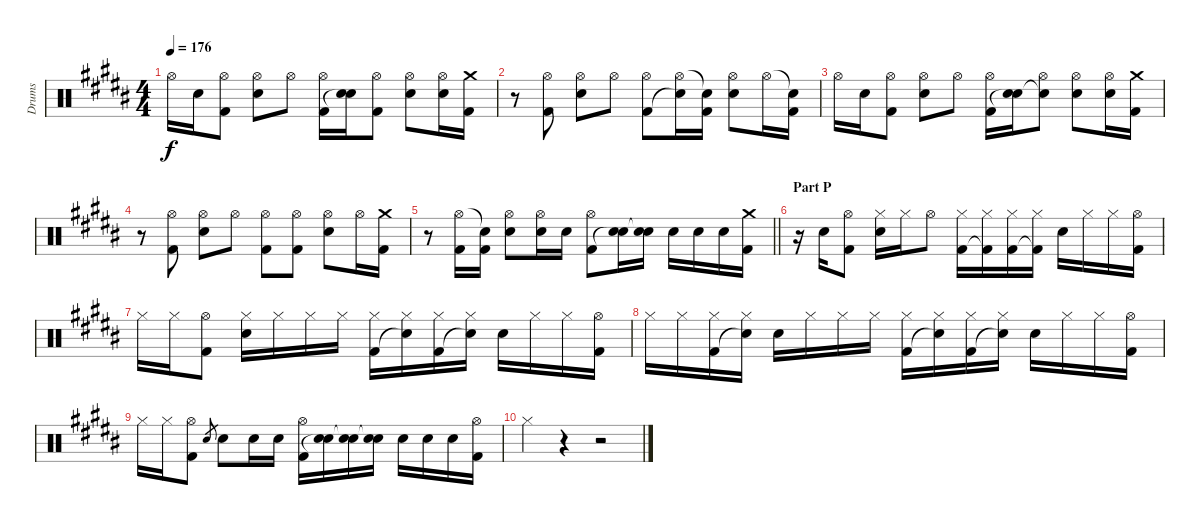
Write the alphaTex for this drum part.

\track ("Drums" "Drums") {instrument percussion}
\staff {score}
\articulation defaults
\ts (4 4)
\tempo 176
\clef neutral
\ks b "Hi-Hat (open)".16{dy f} "Electric Snare (hit)".16
("Hi-Hat (open)" "Kick (hit) 2").8 ("Hi-Hat (open)" "Electric Snare (hit)").8 "Hi-Hat (open)".8 ("Hi-Hat (open)" "Kick (hit) 2").16 ("Electric Snare (hit)" "Snare (hit)"{t}).16 ("Hi-Hat (open)" "Kick (hit) 2").8 ("Hi-Hat (open)" "Electric Snare (hit)").8 ("Hi-Hat (open)" "Electric Snare (hit)").16 ("Crash medium (hit)" "Kick (hit) 2").16 |
r.8 ("Hi-Hat (open)" "Kick (hit) 2").8 ("Hi-Hat (open)" "Electric Snare (hit)").8 "Hi-Hat (open)".8 ("Hi-Hat (open)" "Kick (hit) 2").8 ("Hi-Hat (open)" "Snare (hit)"{t}).16 ("Snare (hit)"{t} "Kick (hit) 2").16 ("Hi-Hat (open)" "Electric Snare (hit)").8 "Hi-Hat (open)".16 ("Snare (hit)"{t} "Kick (hit) 2").16 |
"Hi-Hat (open)".16 "Electric Snare (hit)".16 ("Hi-Hat (open)" "Kick (hit) 2").8 ("Hi-Hat (open)" "Electric Snare (hit)").8 "Hi-Hat (open)".8 ("Hi-Hat (open)" "Kick (hit) 2").16 ("Electric Snare (hit)" "Snare (hit)"{t}).16 ("Hi-Hat (open)" "Snare (hit)"{t}).8 ("Hi-Hat (open)" "Electric Snare (hit)").8 ("Hi-Hat (open)" "Electric Snare (hit)").16 ("Crash medium (hit)" "Kick (hit) 2").16 |
r.8 ("Hi-Hat (open)" "Kick (hit) 2").8 ("Hi-Hat (open)" "Electric Snare (hit)").8 "Hi-Hat (open)".8 ("Hi-Hat (open)" "Kick (hit) 2").8 ("Hi-Hat (open)" "Kick (hit) 2").8 ("Hi-Hat (open)" "Electric Snare (hit)").8 "Hi-Hat (open)".16 ("Crash medium (hit)" "Kick (hit) 2").16 |
\barLineRight lightlight
r.8 ("Hi-Hat (open)" "Kick (hit) 2").16 ("Snare (hit)"{t} "Kick (hit) 2").16 ("Hi-Hat (open)" "Electric Snare (hit)").8 ("Hi-Hat (open)" "Electric Snare (hit)").16 "Electric Snare (hit)".16 ("Hi-Hat (open)" "Kick (hit) 2").8 ("Electric Snare (hit)" "Snare (hit)"{t}).16 ("Electric Snare (hit)" "Snare (hit)"{t}).16 "Electric Snare (hit)".16 "Electric Snare (hit)".16 "Electric Snare (hit)".16 ("Crash medium (hit)" "Kick (hit) 2").16 |
\section ("" "Part P")
r.16 "Electric Snare (hit)".16 ("Hi-Hat (open)" "Kick (hit) 2").8 ("Hi-Hat (closed)" "Electric Snare (hit)").16 "Hi-Hat (closed)".16 "Hi-Hat (open)".8 ("Hi-Hat (closed)" "Kick (hit) 2").16 ("Hi-Hat (closed)" "Kick (hit) 2"{t}).16 ("Hi-Hat (closed)" "Kick (hit) 2").16 ("Hi-Hat (closed)" "Kick (hit) 2"{t}).16 "Electric Snare (hit)".16 "Hi-Hat (closed)".16 "Hi-Hat (closed)".16 ("Hi-Hat (open)" "Kick (hit) 2").16 |
"Hi-Hat (closed)".16 "Hi-Hat (closed)".16 ("Hi-Hat (open)" "Kick (hit) 2").8 ("Hi-Hat (closed)" "Electric Snare (hit)").16 "Hi-Hat (closed)".16 "Hi-Hat (closed)".16 "Hi-Hat (closed)".16 ("Hi-Hat (closed)" "Kick (hit) 2").16 ("Hi-Hat (closed)" "Snare (hit)"{t}).16 ("Hi-Hat (closed)" "Kick (hit) 2").16 ("Hi-Hat (closed)" "Snare (hit)"{t}).16 "Electric Snare (hit)".16 "Hi-Hat (closed)".16 "Hi-Hat (closed)".16 ("Hi-Hat (open)" "Kick (hit) 2").16 |
"Hi-Hat (closed)".16 "Hi-Hat (closed)".16 ("Hi-Hat (closed)" "Kick (hit) 2").16 ("Hi-Hat (closed)" "Snare (hit)"{t}).16 "Electric Snare (hit)".16 "Hi-Hat (closed)".16 "Hi-Hat (closed)".16 "Hi-Hat (closed)".16 ("Hi-Hat (closed)" "Kick (hit) 2").16 ("Hi-Hat (closed)" "Snare (hit)"{t}).16 ("Hi-Hat (closed)" "Kick (hit) 2").16 ("Hi-Hat (closed)" "Snare (hit)"{t}).16 "Electric Snare (hit)".16 "Hi-Hat (closed)".16 "Hi-Hat (closed)".16 ("Hi-Hat (open)" "Kick (hit) 2").16 |
"Hi-Hat (closed)".16 "Hi-Hat (closed)".16 ("Hi-Hat (open)" "Kick (hit) 2").8 "Electric Snare (hit)".8{gr} "Electric Snare (hit)".8 "Electric Snare (hit)".16 "Electric Snare (hit)".16 ("Hi-Hat (open)" "Kick (hit) 2").16 ("Electric Snare (hit)" "Snare (hit)"{t}).16 ("Electric Snare (hit)" "Snare (hit)"{t}).16 ("Electric Snare (hit)" "Snare (hit)"{t}).16 "Electric Snare (hit)".16 "Electric Snare (hit)".16 "Electric Snare (hit)".16 ("Hi-Hat (open)" "Kick (hit) 2").16 |
"Hi-Hat (closed)".4 r.4 r.2
